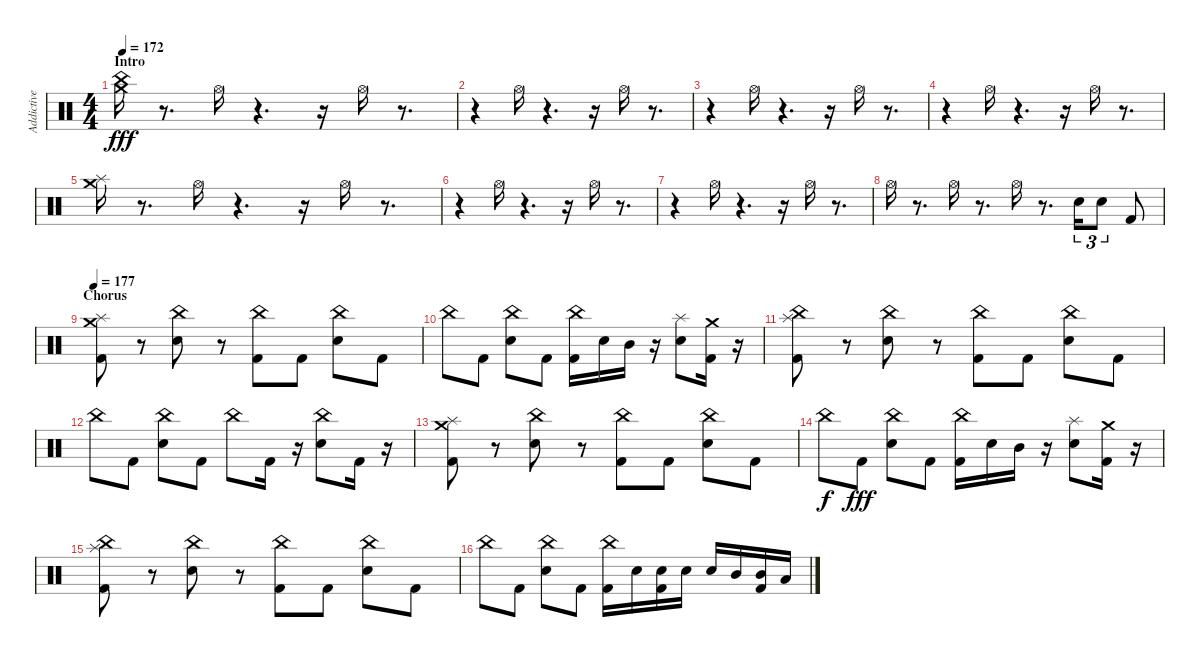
\track ("Addictive" "Addictive") {instrument percussion}
\staff {score}
\articulation defaults
\ts (4 4)
\section ("" "Intro")
\tempo 172
\clef neutral
\ks c
("Crash medium (hit)" "China (hit)").16{dy fff} r.8{d} "Hi-Hat (open)".16 r.4{d} r.16 "Hi-Hat (open)".16 r.8{d} |
r.4 "Hi-Hat (open)".16 r.4{d} r.16 "Hi-Hat (open)".16 r.8{d} |
r.4 "Hi-Hat (open)".16 r.4{d} r.16 "Hi-Hat (open)".16 r.8{d} |
r.4 "Hi-Hat (open)".16 r.4{d} r.16 "Hi-Hat (open)".16 r.8{d} |
("Splash (hit)" "Crash medium (hit)").16 r.8{d} "Hi-Hat (open)".16 r.4{d} r.16 "Hi-Hat (open)".16 r.8{d} |
r.4 "Hi-Hat (open)".16 r.4{d} r.16 "Hi-Hat (open)".16 r.8{d} |
r.4 "Hi-Hat (open)".16 r.4{d} r.16 "Hi-Hat (open)".16 r.8{d} |
"Hi-Hat (open)".16 r.8{d} "Hi-Hat (open)".16 r.8{d} "Hi-Hat (open)".16 r.8{d} "Snare (hit) 2".16{tu (3 2)} "Snare (hit) 2".8{tu (3 2)} "Kick (hit) 2".8 |
\section ("" "Chorus")
\tempo 177
("Kick (hit) 2" "Splash (hit)" "Crash medium (hit)").8 r.8 ("Snare (hit) 2" "China (hit)").8 r.8 ("Kick (hit) 2" "China (hit)").8 "Kick (hit) 2".8 ("Snare (hit) 2" "China (hit)").8 "Kick (hit) 2".8 |
"China (hit)".8 "Kick (hit) 2".8 ("Snare (hit) 2" "China (hit)").8 "Kick (hit) 2".8 ("Kick (hit) 2" "China (hit)").16 "Snare (hit) 2".16 "Mid Tom (hit)".16 r.16 ("Snare (hit) 2" "Splash (hit)").8 ("Kick (hit) 2" "Crash medium (hit)").16 r.16 |
("Kick (hit) 2" "Splash (hit)" "China (hit)").8 r.8 ("Snare (hit) 2" "China (hit)").8 r.8 ("Kick (hit) 2" "China (hit)").8 "Kick (hit) 2".8 ("Snare (hit) 2" "China (hit)").8 "Kick (hit) 2".8 |
"China (hit)".8 "Kick (hit) 2".8 ("Snare (hit) 2" "China (hit)").8 "Kick (hit) 2".8 "China (hit)".8 "Kick (hit) 2".16 r.16 ("Snare (hit) 2" "China (hit)").8 "Kick (hit) 2".16 r.16 |
("Kick (hit) 2" "Splash (hit)" "Crash medium (hit)").8 r.8 ("Snare (hit) 2" "China (hit)").8 r.8 ("Kick (hit) 2" "China (hit)").8 "Kick (hit) 2".8 ("Snare (hit) 2" "China (hit)").8 "Kick (hit) 2".8 |
"China (hit)".8{dy f} "Kick (hit) 2".8{dy fff} ("Snare (hit) 2" "China (hit)").8 "Kick (hit) 2".8 ("Kick (hit) 2" "China (hit)").16 "Snare (hit) 2".16 "Mid Tom (hit)".16 r.16 ("Snare (hit) 2" "Splash (hit)").8 ("Kick (hit) 2" "Crash medium (hit)").16 r.16 |
("Kick (hit) 2" "Splash (hit)" "China (hit)").8 r.8 ("Snare (hit) 2" "China (hit)").8 r.8 ("Kick (hit) 2" "China (hit)").8 "Kick (hit) 2".8 ("Snare (hit) 2" "China (hit)").8 "Kick (hit) 2".8 |
"China (hit)".8 "Kick (hit) 2".8 ("Snare (hit) 2" "China (hit)").8 "Kick (hit) 2".8 ("Kick (hit) 2" "China (hit)").16 "Snare (hit) 2".16 ("Kick (hit) 2" "Snare (hit) 2").16 "Snare (hit) 2".16 "Snare (hit) 2".16 "Mid Tom (hit)".16 ("Kick (hit) 2" "Mid Tom (hit)").16 "Low Tom (hit)".16
